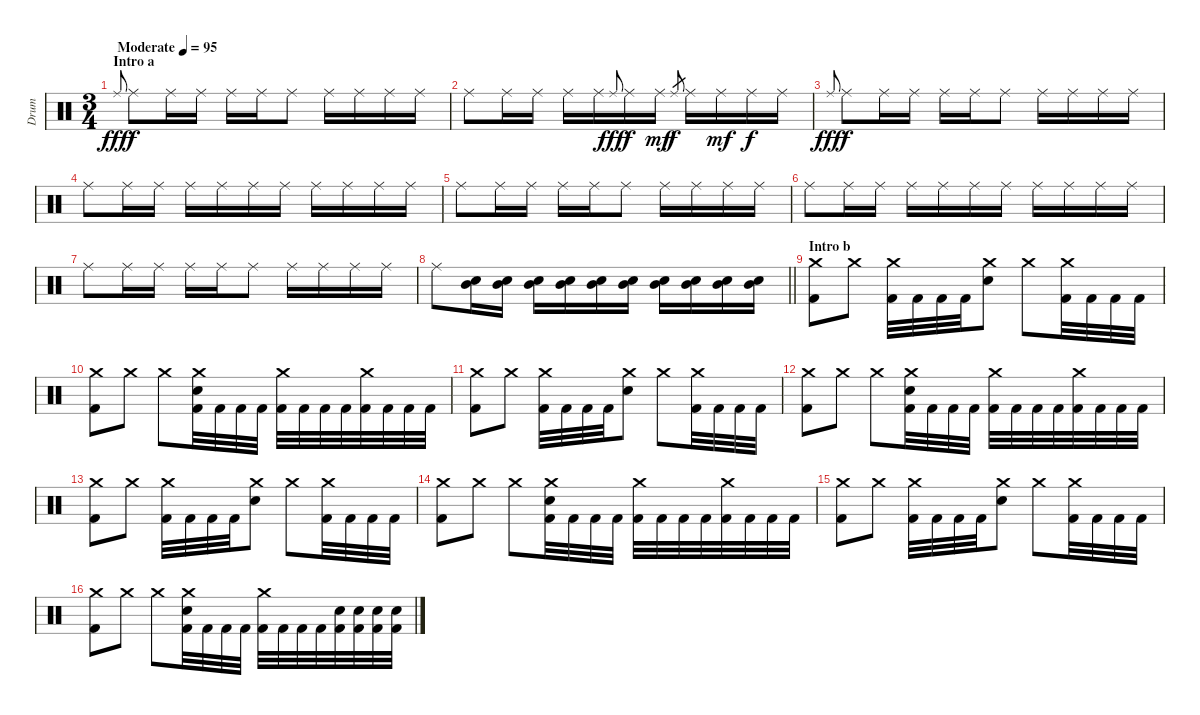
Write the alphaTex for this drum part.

\track ("Drum" "Drum") {instrument percussion}
\staff {score}
\articulation defaults
\ts (3 4)
\section ("" "Intro a")
\tempo (95 "Moderate")
\clef neutral
\ks c "Ride (middle)".8{gr onbeat dy fff} "Ride (middle)".8{dy f} "Ride (middle)".16 "Ride (middle)".16 "Ride (middle)".16 "Ride (middle)".16 "Ride (middle)".8 "Ride (middle)".16 "Ride (middle)".16 "Ride (middle)".16 "Ride (middle)".16
|
"Ride (middle)".8 "Ride (middle)".16 "Ride (middle)".16 "Ride (middle)".16 "Ride (middle)".16 "Ride (middle)".8{gr onbeat dy fff} "Ride (middle)".16{dy f} "Ride (middle)".16{dy mf} "Ride (middle)".8{gr dy f} "Ride (middle)".16 "Ride (middle)".16{dy mf} "Ride (middle)".16{dy f} "Ride (middle)".16 |
"Ride (middle)".8{gr onbeat dy fff} "Ride (middle)".8{dy f} "Ride (middle)".16 "Ride (middle)".16 "Ride (middle)".16 "Ride (middle)".16 "Ride (middle)".8 "Ride (middle)".16 "Ride (middle)".16 "Ride (middle)".16 "Ride (middle)".16 |
"Ride (middle)".8 "Ride (middle)".16 "Ride (middle)".16 "Ride (middle)".16 "Ride (middle)".16 "Ride (middle)".16 "Ride (middle)".16 "Ride (middle)".16 "Ride (middle)".16 "Ride (middle)".16 "Ride (middle)".16 |
"Ride (middle)".8 "Ride (middle)".16 "Ride (middle)".16 "Ride (middle)".16 "Ride (middle)".16 "Ride (middle)".8 "Ride (middle)".16 "Ride (middle)".16 "Ride (middle)".16 "Ride (middle)".16 |
"Ride (middle)".8 "Ride (middle)".16 "Ride (middle)".16 "Ride (middle)".16 "Ride (middle)".16 "Ride (middle)".16 "Ride (middle)".16 "Ride (middle)".16 "Ride (middle)".16 "Ride (middle)".16 "Ride (middle)".16 |
"Ride (middle)".8 "Ride (middle)".16 "Ride (middle)".16 "Ride (middle)".16 "Ride (middle)".16 "Ride (middle)".8 "Ride (middle)".16 "Ride (middle)".16 "Ride (middle)".16 "Ride (middle)".16 |
\barLineRight lightlight "Ride (middle)".8
("Electric Snare (hit)" "Mid Tom (hit)").16{volume 0} ("Electric Snare (hit)" "Mid Tom (hit)").16{volume 16} ("Electric Snare (hit)" "Mid Tom (hit)").16 ("Electric Snare (hit)" "Mid Tom (hit)").16 ("Electric Snare (hit)" "Mid Tom (hit)").16 ("Electric Snare (hit)" "Mid Tom (hit)").16 ("Electric Snare (hit)" "Mid Tom (hit)").16 ("Electric Snare (hit)" "Mid Tom (hit)").16 ("Electric Snare (hit)" "Mid Tom (hit)").16 ("Electric Snare (hit)" "Mid Tom (hit)").16 |
\section ("" "Intro b")
("Crash medium (hit)" "Kick (hit) 2").8 "Crash medium (hit)".8 ("Crash medium (hit)" "Kick (hit) 2").32 "Kick (hit) 2".32 "Kick (hit) 2".32 "Kick (hit) 2".32 ("Crash medium (hit)" "Electric Snare (hit)").8 "Crash medium (hit)".8 ("Crash medium (hit)" "Kick (hit) 2").32 "Kick (hit) 2".32 "Kick (hit) 2".32 "Kick (hit) 2".32 |
("Crash medium (hit)" "Kick (hit) 2").8 "Crash medium (hit)".8 "Crash medium (hit)".8 ("Crash medium (hit)" "Electric Snare (hit)" "Kick (hit) 2").32 "Kick (hit) 2".32 "Kick (hit) 2".32 "Kick (hit) 2".32 ("Crash medium (hit)" "Kick (hit) 2").32 "Kick (hit) 2".32 "Kick (hit) 2".32 "Kick (hit) 2".32 ("Crash medium (hit)" "Kick (hit) 2").32 "Kick (hit) 2".32 "Kick (hit) 2".32 "Kick (hit) 2".32 |
("Crash medium (hit)" "Kick (hit) 2").8 "Crash medium (hit)".8 ("Crash medium (hit)" "Kick (hit) 2").32 "Kick (hit) 2".32 "Kick (hit) 2".32 "Kick (hit) 2".32 ("Crash medium (hit)" "Electric Snare (hit)").8 "Crash medium (hit)".8 ("Crash medium (hit)" "Kick (hit) 2").32 "Kick (hit) 2".32 "Kick (hit) 2".32 "Kick (hit) 2".32 |
("Crash medium (hit)" "Kick (hit) 2").8 "Crash medium (hit)".8 "Crash medium (hit)".8 ("Crash medium (hit)" "Electric Snare (hit)" "Kick (hit) 2").32 "Kick (hit) 2".32 "Kick (hit) 2".32 "Kick (hit) 2".32 ("Crash medium (hit)" "Kick (hit) 2").32 "Kick (hit) 2".32 "Kick (hit) 2".32 "Kick (hit) 2".32 ("Crash medium (hit)" "Kick (hit) 2").32 "Kick (hit) 2".32 "Kick (hit) 2".32 "Kick (hit) 2".32 |
("Crash medium (hit)" "Kick (hit) 2").8 "Crash medium (hit)".8 ("Crash medium (hit)" "Kick (hit) 2").32 "Kick (hit) 2".32 "Kick (hit) 2".32 "Kick (hit) 2".32 ("Crash medium (hit)" "Electric Snare (hit)").8 "Crash medium (hit)".8 ("Crash medium (hit)" "Kick (hit) 2").32 "Kick (hit) 2".32 "Kick (hit) 2".32 "Kick (hit) 2".32 |
("Crash medium (hit)" "Kick (hit) 2").8 "Crash medium (hit)".8 "Crash medium (hit)".8 ("Crash medium (hit)" "Electric Snare (hit)" "Kick (hit) 2").32 "Kick (hit) 2".32 "Kick (hit) 2".32 "Kick (hit) 2".32 ("Crash medium (hit)" "Kick (hit) 2").32 "Kick (hit) 2".32 "Kick (hit) 2".32 "Kick (hit) 2".32 ("Crash medium (hit)" "Kick (hit) 2").32 "Kick (hit) 2".32 "Kick (hit) 2".32 "Kick (hit) 2".32 |
("Crash medium (hit)" "Kick (hit) 2").8 "Crash medium (hit)".8 ("Crash medium (hit)" "Kick (hit) 2").32 "Kick (hit) 2".32 "Kick (hit) 2".32 "Kick (hit) 2".32 ("Crash medium (hit)" "Electric Snare (hit)").8 "Crash medium (hit)".8 ("Crash medium (hit)" "Kick (hit) 2").32 "Kick (hit) 2".32 "Kick (hit) 2".32 "Kick (hit) 2".32 |
("Crash medium (hit)" "Kick (hit) 2").8 "Crash medium (hit)".8 "Crash medium (hit)".8 ("Crash medium (hit)" "Electric Snare (hit)" "Kick (hit) 2").32 "Kick (hit) 2".32 "Kick (hit) 2".32 "Kick (hit) 2".32 ("Crash medium (hit)" "Kick (hit) 2").32 "Kick (hit) 2".32 "Kick (hit) 2".32 "Kick (hit) 2".32 ("Electric Snare (hit)" "Kick (hit) 2").32 ("Electric Snare (hit)" "Kick (hit) 2").32 ("Electric Snare (hit)" "Kick (hit) 2").32 ("Electric Snare (hit)" "Kick (hit) 2").32
